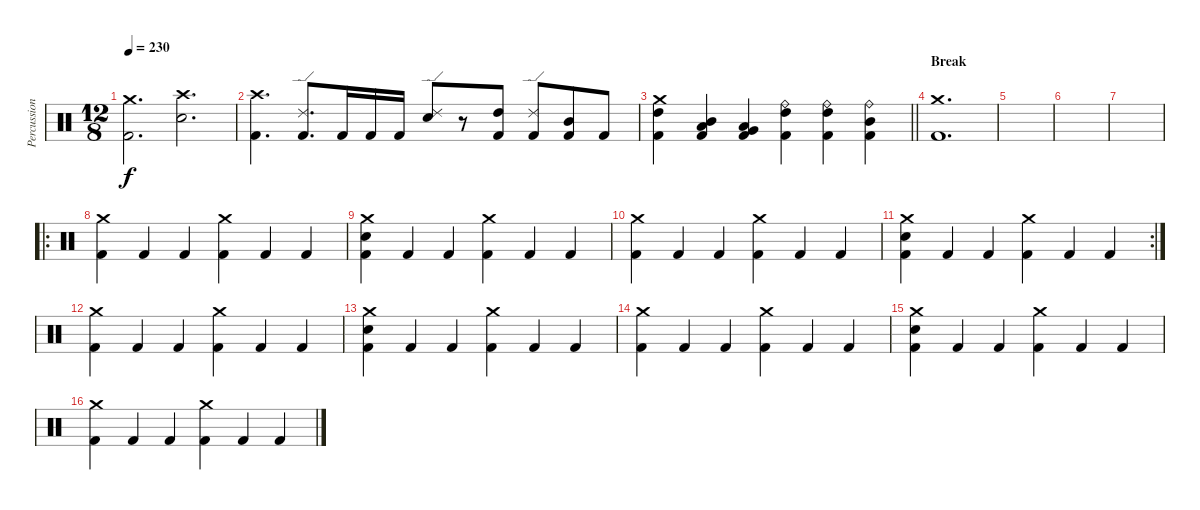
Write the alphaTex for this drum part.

\track ("Percussions" "Percussion") {instrument percussion}
\staff {score}
\articulation defaults
\ts (12 8)
\tempo 230
\clef neutral
\ks c
("Crash medium (hit)" "Kick (hit) 2").2{d dy f} ("Crash high (hit)" "Electric Snare (hit)").2{d} |
("Crash high (hit)" "Kick (hit) 2").4{d} ("Ride (edge) 2" "Kick (hit) 2").8{d} "Kick (hit) 2".16 "Kick (hit) 2".16 "Kick (hit) 2".16 ("Ride (edge) 2" "Electric Snare (hit)").8 r.8 ("High Tom (hit)" "Kick (hit) 2").8 ("Ride (edge) 2" "Kick (hit) 2").8 ("Mid Tom (hit)" "Kick (hit) 2").8 "Kick (hit) 2".8 |
\barLineRight lightlight
("Crash medium (hit)" "High Tom (hit)" "Kick (hit) 2").4 ("Low Tom (hit)" "Mid Tom (hit)" "Kick (hit) 2").4 ("Very Low Tom (hit)" "Low Tom (hit)" "Kick (hit) 2").4 ("Ride (bell)" "High Tom (hit)" "Kick (hit) 2").4 ("Ride (bell)" "High Tom (hit)" "Kick (hit) 2").4 ("Ride (bell)" "Mid Tom (hit)" "Kick (hit) 2").4 |
\section ("" "Break")
("Crash medium (hit)" "Kick (hit) 2").1{d} |
|
|
|
\ro
("Crash medium (hit)" "Kick (hit) 2").4 "Kick (hit) 2".4 "Kick (hit) 2".4 ("Crash medium (hit)" "Kick (hit) 2").4 "Kick (hit) 2".4 "Kick (hit) 2".4 |
("Crash medium (hit)" "Electric Snare (hit)" "Kick (hit) 2").4 "Kick (hit) 2".4 "Kick (hit) 2".4 ("Crash medium (hit)" "Kick (hit) 2").4 "Kick (hit) 2".4 "Kick (hit) 2".4 |
("Crash medium (hit)" "Kick (hit) 2").4 "Kick (hit) 2".4 "Kick (hit) 2".4 ("Crash medium (hit)" "Kick (hit) 2").4 "Kick (hit) 2".4 "Kick (hit) 2".4 |
\rc 2
("Crash medium (hit)" "Electric Snare (hit)" "Kick (hit) 2").4 "Kick (hit) 2".4 "Kick (hit) 2".4 ("Crash medium (hit)" "Kick (hit) 2").4 "Kick (hit) 2".4 "Kick (hit) 2".4 |
("Crash medium (hit)" "Kick (hit) 2").4 "Kick (hit) 2".4 "Kick (hit) 2".4 ("Crash medium (hit)" "Kick (hit) 2").4 "Kick (hit) 2".4 "Kick (hit) 2".4 |
("Crash medium (hit)" "Electric Snare (hit)" "Kick (hit) 2").4 "Kick (hit) 2".4 "Kick (hit) 2".4 ("Crash medium (hit)" "Kick (hit) 2").4 "Kick (hit) 2".4 "Kick (hit) 2".4 |
("Crash medium (hit)" "Kick (hit) 2").4 "Kick (hit) 2".4 "Kick (hit) 2".4 ("Crash medium (hit)" "Kick (hit) 2").4 "Kick (hit) 2".4 "Kick (hit) 2".4 |
("Crash medium (hit)" "Electric Snare (hit)" "Kick (hit) 2").4 "Kick (hit) 2".4 "Kick (hit) 2".4 ("Crash medium (hit)" "Kick (hit) 2").4 "Kick (hit) 2".4 "Kick (hit) 2".4 |
("Crash medium (hit)" "Kick (hit) 2").4 "Kick (hit) 2".4 "Kick (hit) 2".4 ("Crash medium (hit)" "Kick (hit) 2").4 "Kick (hit) 2".4 "Kick (hit) 2".4
